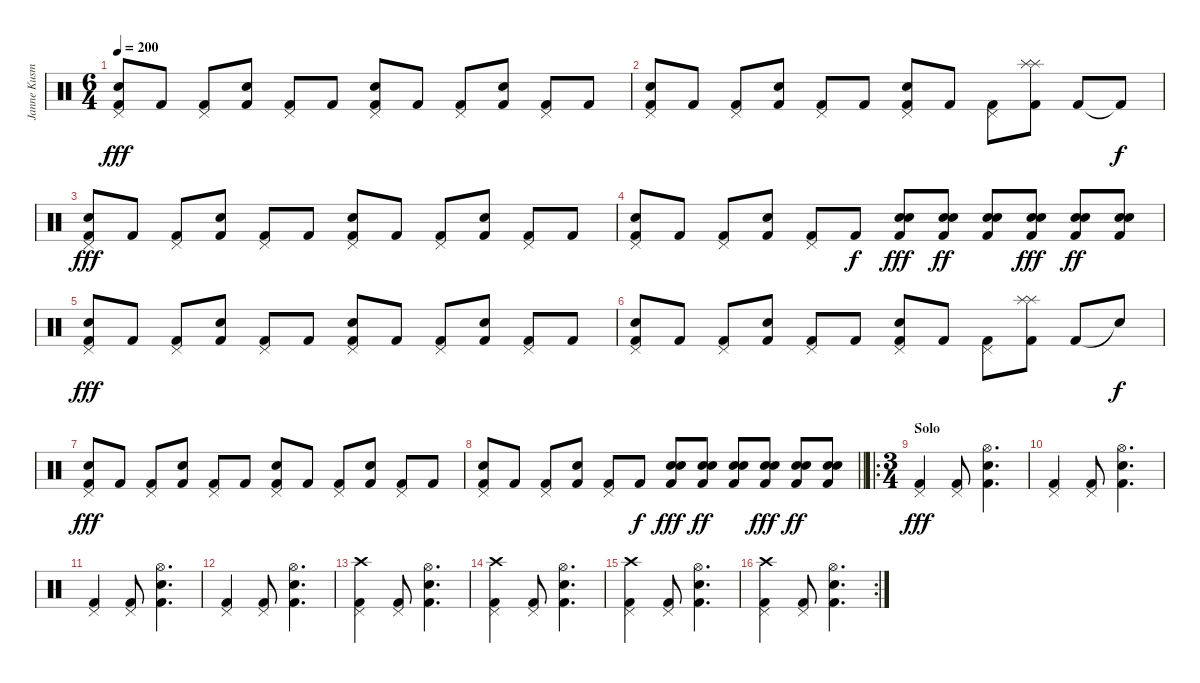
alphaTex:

\track ("Janne Kusmin" "Janne Kusm") {instrument percussion}
\staff {score}
\articulation defaults
\ts (6 4)
\tempo 200
\clef neutral
\ks c
("Pedal Hi-Hat (hit)" "Snare (hit) 2" "Kick (hit) 2").8{dy fff} "Kick (hit) 2".8 ("Pedal Hi-Hat (hit)" "Kick (hit) 2").8 ("Snare (hit) 2" "Kick (hit) 2").8 ("Pedal Hi-Hat (hit)" "Kick (hit) 2").8 "Kick (hit) 2".8 ("Pedal Hi-Hat (hit)" "Snare (hit) 2" "Kick (hit) 2").8 "Kick (hit) 2".8 ("Pedal Hi-Hat (hit)" "Kick (hit) 2").8 ("Snare (hit) 2" "Kick (hit) 2").8 ("Pedal Hi-Hat (hit)" "Kick (hit) 2").8 "Kick (hit) 2".8 |
("Pedal Hi-Hat (hit)" "Snare (hit) 2" "Kick (hit) 2").8 "Kick (hit) 2".8 ("Pedal Hi-Hat (hit)" "Kick (hit) 2").8 ("Snare (hit) 2" "Kick (hit) 2").8 ("Pedal Hi-Hat (hit)" "Kick (hit) 2").8 "Kick (hit) 2".8 ("Pedal Hi-Hat (hit)" "Snare (hit) 2" "Kick (hit) 2").8 "Kick (hit) 2".8 ("Pedal Hi-Hat (hit)" "Kick (hit) 2").8 ("Splash (hit)" "Splash (hit)" "Kick (hit) 2").8 "Kick (hit) 2".8 "Kick (hit) 2"{t}.8{dy f} |
("Pedal Hi-Hat (hit)" "Snare (hit) 2" "Kick (hit) 2").8{dy fff} "Kick (hit) 2".8 ("Pedal Hi-Hat (hit)" "Kick (hit) 2").8 ("Snare (hit) 2" "Kick (hit) 2").8 ("Pedal Hi-Hat (hit)" "Kick (hit) 2").8 "Kick (hit) 2".8 ("Pedal Hi-Hat (hit)" "Snare (hit) 2" "Kick (hit) 2").8 "Kick (hit) 2".8 ("Pedal Hi-Hat (hit)" "Kick (hit) 2").8 ("Snare (hit) 2" "Kick (hit) 2").8 ("Pedal Hi-Hat (hit)" "Kick (hit) 2").8 "Kick (hit) 2".8 |
("Pedal Hi-Hat (hit)" "Snare (hit) 2" "Kick (hit) 2").8 "Kick (hit) 2".8 ("Pedal Hi-Hat (hit)" "Kick (hit) 2").8 ("Snare (hit) 2" "Kick (hit) 2").8 ("Pedal Hi-Hat (hit)" "Kick (hit) 2").8 "Kick (hit) 2".8{dy f} ("Snare (hit) 2" "Snare (hit) 2" "Kick (hit) 2").8{dy fff} ("Snare (hit) 2" "Snare (hit) 2" "Kick (hit) 2").8{dy ff} ("Snare (hit) 2" "Snare (hit) 2" "Kick (hit) 2").8 ("Snare (hit) 2" "Snare (hit) 2" "Kick (hit) 2").8{dy fff} ("Snare (hit) 2" "Snare (hit) 2" "Kick (hit) 2").8{dy ff} ("Snare (hit) 2" "Snare (hit) 2" "Kick (hit) 2").8 |
("Pedal Hi-Hat (hit)" "Snare (hit) 2" "Kick (hit) 2").8{dy fff} "Kick (hit) 2".8 ("Pedal Hi-Hat (hit)" "Kick (hit) 2").8 ("Snare (hit) 2" "Kick (hit) 2").8 ("Pedal Hi-Hat (hit)" "Kick (hit) 2").8 "Kick (hit) 2".8 ("Pedal Hi-Hat (hit)" "Snare (hit) 2" "Kick (hit) 2").8 "Kick (hit) 2".8 ("Pedal Hi-Hat (hit)" "Kick (hit) 2").8 ("Snare (hit) 2" "Kick (hit) 2").8 ("Pedal Hi-Hat (hit)" "Kick (hit) 2").8 "Kick (hit) 2".8 |
("Pedal Hi-Hat (hit)" "Snare (hit) 2" "Kick (hit) 2").8 "Kick (hit) 2".8 ("Pedal Hi-Hat (hit)" "Kick (hit) 2").8 ("Snare (hit) 2" "Kick (hit) 2").8 ("Pedal Hi-Hat (hit)" "Kick (hit) 2").8 "Kick (hit) 2".8 ("Pedal Hi-Hat (hit)" "Snare (hit) 2" "Kick (hit) 2").8 "Kick (hit) 2".8 ("Pedal Hi-Hat (hit)" "Kick (hit) 2").8 ("Splash (hit)" "Splash (hit)" "Kick (hit) 2").8 "Kick (hit) 2".8 "Snare (hit)"{t}.8{dy f} |
("Pedal Hi-Hat (hit)" "Snare (hit) 2" "Kick (hit) 2").8{dy fff} "Kick (hit) 2".8 ("Pedal Hi-Hat (hit)" "Kick (hit) 2").8 ("Snare (hit) 2" "Kick (hit) 2").8 ("Pedal Hi-Hat (hit)" "Kick (hit) 2").8 "Kick (hit) 2".8 ("Pedal Hi-Hat (hit)" "Snare (hit) 2" "Kick (hit) 2").8 "Kick (hit) 2".8 ("Pedal Hi-Hat (hit)" "Kick (hit) 2").8 ("Snare (hit) 2" "Kick (hit) 2").8 ("Pedal Hi-Hat (hit)" "Kick (hit) 2").8 "Kick (hit) 2".8 |
\barLineRight lightlight
("Pedal Hi-Hat (hit)" "Snare (hit) 2" "Kick (hit) 2").8 "Kick (hit) 2".8 ("Pedal Hi-Hat (hit)" "Kick (hit) 2").8 ("Snare (hit) 2" "Kick (hit) 2").8 ("Pedal Hi-Hat (hit)" "Kick (hit) 2").8 "Kick (hit) 2".8{dy f} ("Snare (hit) 2" "Snare (hit) 2" "Kick (hit) 2").8{dy fff} ("Snare (hit) 2" "Snare (hit) 2" "Kick (hit) 2").8{dy ff} ("Snare (hit) 2" "Snare (hit) 2" "Kick (hit) 2").8 ("Snare (hit) 2" "Snare (hit) 2" "Kick (hit) 2").8{dy fff} ("Snare (hit) 2" "Snare (hit) 2" "Kick (hit) 2").8{dy ff} ("Snare (hit) 2" "Snare (hit) 2" "Kick (hit) 2").8 |
\ro
\ts (3 4)
\section ("" "Solo")
("Pedal Hi-Hat (hit)" "Kick (hit) 2").4{dy fff} ("Pedal Hi-Hat (hit)" "Kick (hit) 2").8 ("Hi-Hat (open)" "Snare (hit) 2" "Kick (hit) 2").4{d} |
("Pedal Hi-Hat (hit)" "Kick (hit) 2").4 ("Pedal Hi-Hat (hit)" "Kick (hit) 2").8 ("Hi-Hat (open)" "Snare (hit) 2" "Kick (hit) 2").4{d} |
("Pedal Hi-Hat (hit)" "Kick (hit) 2").4 ("Pedal Hi-Hat (hit)" "Kick (hit) 2").8 ("Hi-Hat (open)" "Snare (hit) 2" "Kick (hit) 2").4{d} |
("Pedal Hi-Hat (hit)" "Kick (hit) 2").4 ("Pedal Hi-Hat (hit)" "Kick (hit) 2").8 ("Hi-Hat (open)" "Snare (hit) 2" "Kick (hit) 2").4{d} |
("Crash high (hit)" "Pedal Hi-Hat (hit)" "Kick (hit) 2").4 ("Pedal Hi-Hat (hit)" "Kick (hit) 2").8 ("Hi-Hat (open)" "Snare (hit) 2" "Kick (hit) 2").4{d} |
("Crash high (hit)" "Pedal Hi-Hat (hit)" "Kick (hit) 2").4 ("Pedal Hi-Hat (hit)" "Kick (hit) 2").8 ("Hi-Hat (open)" "Snare (hit) 2" "Kick (hit) 2").4{d} |
("Crash high (hit)" "Pedal Hi-Hat (hit)" "Kick (hit) 2").4 ("Pedal Hi-Hat (hit)" "Kick (hit) 2").8 ("Hi-Hat (open)" "Snare (hit) 2" "Kick (hit) 2").4{d} |
\rc 2
("Crash high (hit)" "Pedal Hi-Hat (hit)" "Kick (hit) 2").4 ("Pedal Hi-Hat (hit)" "Kick (hit) 2").8 ("Hi-Hat (open)" "Snare (hit) 2" "Kick (hit) 2").4{d}
